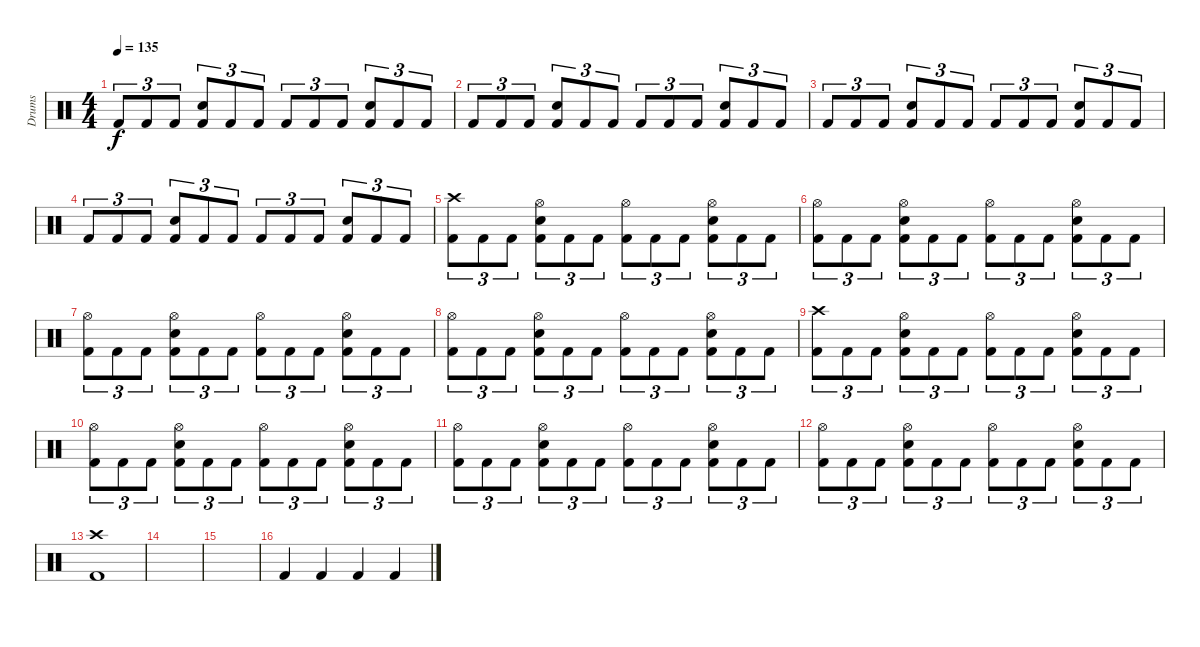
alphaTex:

\track ("Drums" "Drums") {instrument percussion}
\staff {score}
\articulation defaults
\ts (4 4)
\tempo 135
\clef neutral
\ks c "Kick (hit) 2".8{tu (3 2) dy f} "Kick (hit) 2".8{tu (3 2)} "Kick (hit) 2".8{tu (3 2)}
("Snare (hit) 2" "Kick (hit) 2").8{tu (3 2)} "Kick (hit) 2".8{tu (3 2)} "Kick (hit) 2".8{tu (3 2)} "Kick (hit) 2".8{tu (3 2)} "Kick (hit) 2".8{tu (3 2)} "Kick (hit) 2".8{tu (3 2)} ("Snare (hit) 2" "Kick (hit) 2").8{tu (3 2)} "Kick (hit) 2".8{tu (3 2)} "Kick (hit) 2".8{tu (3 2)} |
"Kick (hit) 2".8{tu (3 2)} "Kick (hit) 2".8{tu (3 2)} "Kick (hit) 2".8{tu (3 2)} ("Snare (hit) 2" "Kick (hit) 2").8{tu (3 2)} "Kick (hit) 2".8{tu (3 2)} "Kick (hit) 2".8{tu (3 2)} "Kick (hit) 2".8{tu (3 2)} "Kick (hit) 2".8{tu (3 2)} "Kick (hit) 2".8{tu (3 2)} ("Snare (hit) 2" "Kick (hit) 2").8{tu (3 2)} "Kick (hit) 2".8{tu (3 2)} "Kick (hit) 2".8{tu (3 2)} |
"Kick (hit) 2".8{tu (3 2)} "Kick (hit) 2".8{tu (3 2)} "Kick (hit) 2".8{tu (3 2)} ("Snare (hit) 2" "Kick (hit) 2").8{tu (3 2)} "Kick (hit) 2".8{tu (3 2)} "Kick (hit) 2".8{tu (3 2)} "Kick (hit) 2".8{tu (3 2)} "Kick (hit) 2".8{tu (3 2)} "Kick (hit) 2".8{tu (3 2)} ("Snare (hit) 2" "Kick (hit) 2").8{tu (3 2)} "Kick (hit) 2".8{tu (3 2)} "Kick (hit) 2".8{tu (3 2)} |
"Kick (hit) 2".8{tu (3 2)} "Kick (hit) 2".8{tu (3 2)} "Kick (hit) 2".8{tu (3 2)} ("Snare (hit) 2" "Kick (hit) 2").8{tu (3 2)} "Kick (hit) 2".8{tu (3 2)} "Kick (hit) 2".8{tu (3 2)} "Kick (hit) 2".8{tu (3 2)} "Kick (hit) 2".8{tu (3 2)} "Kick (hit) 2".8{tu (3 2)} ("Snare (hit) 2" "Kick (hit) 2").8{tu (3 2)} "Kick (hit) 2".8{tu (3 2)} "Kick (hit) 2".8{tu (3 2)} |
("Crash high (hit)" "Kick (hit) 2").8{tu (3 2)} "Kick (hit) 2".8{tu (3 2)} "Kick (hit) 2".8{tu (3 2)} ("Hi-Hat (open)" "Snare (hit) 2" "Kick (hit) 2").8{tu (3 2)} "Kick (hit) 2".8{tu (3 2)} "Kick (hit) 2".8{tu (3 2)} ("Hi-Hat (open)" "Kick (hit) 2").8{tu (3 2)} "Kick (hit) 2".8{tu (3 2)} "Kick (hit) 2".8{tu (3 2)} ("Hi-Hat (open)" "Snare (hit) 2" "Kick (hit) 2").8{tu (3 2)} "Kick (hit) 2".8{tu (3 2)} "Kick (hit) 2".8{tu (3 2)} |
("Hi-Hat (open)" "Kick (hit) 2").8{tu (3 2)} "Kick (hit) 2".8{tu (3 2)} "Kick (hit) 2".8{tu (3 2)} ("Hi-Hat (open)" "Snare (hit) 2" "Kick (hit) 2").8{tu (3 2)} "Kick (hit) 2".8{tu (3 2)} "Kick (hit) 2".8{tu (3 2)} ("Hi-Hat (open)" "Kick (hit) 2").8{tu (3 2)} "Kick (hit) 2".8{tu (3 2)} "Kick (hit) 2".8{tu (3 2)} ("Hi-Hat (open)" "Snare (hit) 2" "Kick (hit) 2").8{tu (3 2)} "Kick (hit) 2".8{tu (3 2)} "Kick (hit) 2".8{tu (3 2)} |
("Hi-Hat (open)" "Kick (hit) 2").8{tu (3 2)} "Kick (hit) 2".8{tu (3 2)} "Kick (hit) 2".8{tu (3 2)} ("Hi-Hat (open)" "Snare (hit) 2" "Kick (hit) 2").8{tu (3 2)} "Kick (hit) 2".8{tu (3 2)} "Kick (hit) 2".8{tu (3 2)} ("Hi-Hat (open)" "Kick (hit) 2").8{tu (3 2)} "Kick (hit) 2".8{tu (3 2)} "Kick (hit) 2".8{tu (3 2)} ("Hi-Hat (open)" "Snare (hit) 2" "Kick (hit) 2").8{tu (3 2)} "Kick (hit) 2".8{tu (3 2)} "Kick (hit) 2".8{tu (3 2)} |
("Hi-Hat (open)" "Kick (hit) 2").8{tu (3 2)} "Kick (hit) 2".8{tu (3 2)} "Kick (hit) 2".8{tu (3 2)} ("Hi-Hat (open)" "Snare (hit) 2" "Kick (hit) 2").8{tu (3 2)} "Kick (hit) 2".8{tu (3 2)} "Kick (hit) 2".8{tu (3 2)} ("Hi-Hat (open)" "Kick (hit) 2").8{tu (3 2)} "Kick (hit) 2".8{tu (3 2)} "Kick (hit) 2".8{tu (3 2)} ("Hi-Hat (open)" "Snare (hit) 2" "Kick (hit) 2").8{tu (3 2)} "Kick (hit) 2".8{tu (3 2)} "Kick (hit) 2".8{tu (3 2)} |
("Crash high (hit)" "Kick (hit) 2").8{tu (3 2)} "Kick (hit) 2".8{tu (3 2)} "Kick (hit) 2".8{tu (3 2)} ("Hi-Hat (open)" "Snare (hit) 2" "Kick (hit) 2").8{tu (3 2)} "Kick (hit) 2".8{tu (3 2)} "Kick (hit) 2".8{tu (3 2)} ("Hi-Hat (open)" "Kick (hit) 2").8{tu (3 2)} "Kick (hit) 2".8{tu (3 2)} "Kick (hit) 2".8{tu (3 2)} ("Hi-Hat (open)" "Snare (hit) 2" "Kick (hit) 2").8{tu (3 2)} "Kick (hit) 2".8{tu (3 2)} "Kick (hit) 2".8{tu (3 2)} |
("Hi-Hat (open)" "Kick (hit) 2").8{tu (3 2)} "Kick (hit) 2".8{tu (3 2)} "Kick (hit) 2".8{tu (3 2)} ("Hi-Hat (open)" "Snare (hit) 2" "Kick (hit) 2").8{tu (3 2)} "Kick (hit) 2".8{tu (3 2)} "Kick (hit) 2".8{tu (3 2)} ("Hi-Hat (open)" "Kick (hit) 2").8{tu (3 2)} "Kick (hit) 2".8{tu (3 2)} "Kick (hit) 2".8{tu (3 2)} ("Hi-Hat (open)" "Snare (hit) 2" "Kick (hit) 2").8{tu (3 2)} "Kick (hit) 2".8{tu (3 2)} "Kick (hit) 2".8{tu (3 2)} |
("Hi-Hat (open)" "Kick (hit) 2").8{tu (3 2)} "Kick (hit) 2".8{tu (3 2)} "Kick (hit) 2".8{tu (3 2)} ("Hi-Hat (open)" "Snare (hit) 2" "Kick (hit) 2").8{tu (3 2)} "Kick (hit) 2".8{tu (3 2)} "Kick (hit) 2".8{tu (3 2)} ("Hi-Hat (open)" "Kick (hit) 2").8{tu (3 2)} "Kick (hit) 2".8{tu (3 2)} "Kick (hit) 2".8{tu (3 2)} ("Hi-Hat (open)" "Snare (hit) 2" "Kick (hit) 2").8{tu (3 2)} "Kick (hit) 2".8{tu (3 2)} "Kick (hit) 2".8{tu (3 2)} |
("Hi-Hat (open)" "Kick (hit) 2").8{tu (3 2)} "Kick (hit) 2".8{tu (3 2)} "Kick (hit) 2".8{tu (3 2)} ("Hi-Hat (open)" "Snare (hit) 2" "Kick (hit) 2").8{tu (3 2)} "Kick (hit) 2".8{tu (3 2)} "Kick (hit) 2".8{tu (3 2)} ("Hi-Hat (open)" "Kick (hit) 2").8{tu (3 2)} "Kick (hit) 2".8{tu (3 2)} "Kick (hit) 2".8{tu (3 2)} ("Hi-Hat (open)" "Snare (hit) 2" "Kick (hit) 2").8{tu (3 2)} "Kick (hit) 2".8{tu (3 2)} "Kick (hit) 2".8{tu (3 2)} |
("Crash high (hit)" "Kick (hit) 2").1 |
|
|
"Kick (hit) 2".4 "Kick (hit) 2".4 "Kick (hit) 2".4 "Kick (hit) 2".4
